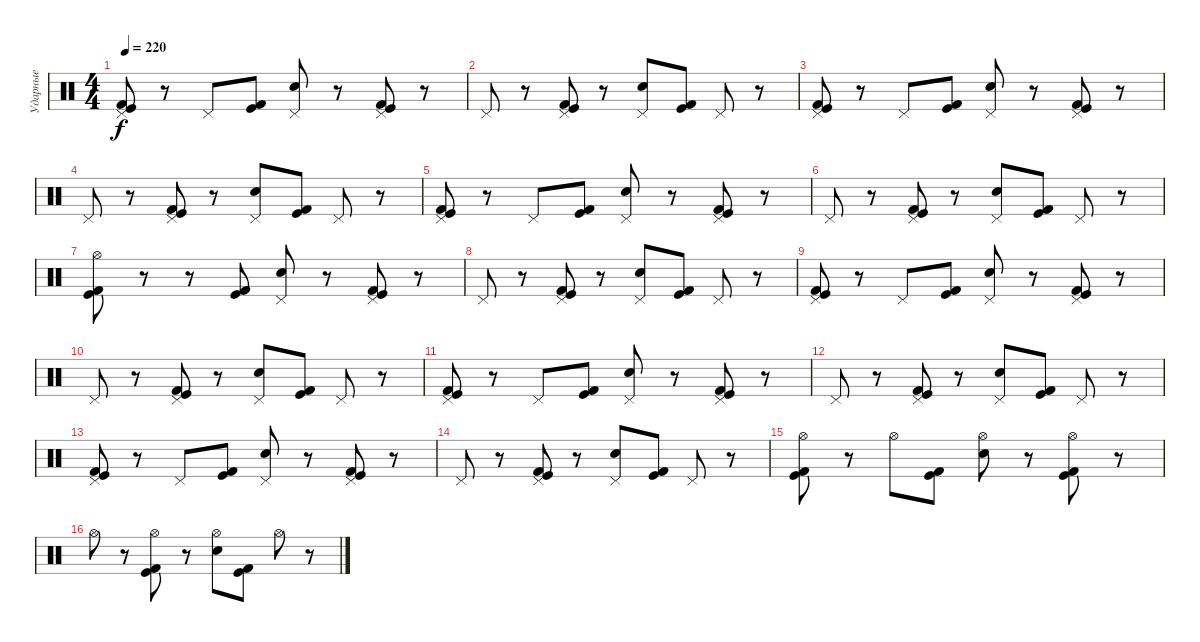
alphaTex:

\track ("Ударные" "Ударные") {instrument percussion}
\staff {score}
\articulation defaults
\ts (4 4)
\tempo 220
\clef neutral
\ks c
("Pedal Hi-Hat (hit)" "Kick (hit)" "Kick (hit) 2").8{dy f} r.8 "Pedal Hi-Hat (hit)".8 ("Kick (hit)" "Kick (hit) 2").8 ("Pedal Hi-Hat (hit)" "Electric Snare (hit)").8 r.8 ("Pedal Hi-Hat (hit)" "Kick (hit)" "Kick (hit) 2").8 r.8 |
"Pedal Hi-Hat (hit)".8 r.8 ("Pedal Hi-Hat (hit)" "Kick (hit)" "Kick (hit) 2").8 r.8 ("Pedal Hi-Hat (hit)" "Electric Snare (hit)").8 ("Kick (hit)" "Kick (hit) 2").8 "Pedal Hi-Hat (hit)".8 r.8 |
("Pedal Hi-Hat (hit)" "Kick (hit)" "Kick (hit) 2").8 r.8 "Pedal Hi-Hat (hit)".8 ("Kick (hit)" "Kick (hit) 2").8 ("Pedal Hi-Hat (hit)" "Electric Snare (hit)").8 r.8 ("Pedal Hi-Hat (hit)" "Kick (hit)" "Kick (hit) 2").8 r.8 |
"Pedal Hi-Hat (hit)".8 r.8 ("Pedal Hi-Hat (hit)" "Kick (hit)" "Kick (hit) 2").8 r.8 ("Pedal Hi-Hat (hit)" "Electric Snare (hit)").8 ("Kick (hit)" "Kick (hit) 2").8 "Pedal Hi-Hat (hit)".8 r.8 |
("Pedal Hi-Hat (hit)" "Kick (hit)" "Kick (hit) 2").8 r.8 "Pedal Hi-Hat (hit)".8 ("Kick (hit)" "Kick (hit) 2").8 ("Pedal Hi-Hat (hit)" "Electric Snare (hit)").8 r.8 ("Pedal Hi-Hat (hit)" "Kick (hit)" "Kick (hit) 2").8 r.8 |
"Pedal Hi-Hat (hit)".8 r.8 ("Pedal Hi-Hat (hit)" "Kick (hit)" "Kick (hit) 2").8 r.8 ("Pedal Hi-Hat (hit)" "Electric Snare (hit)").8 ("Kick (hit)" "Kick (hit) 2").8 "Pedal Hi-Hat (hit)".8 r.8 |
("Hi-Hat (open)" "Kick (hit)" "Kick (hit) 2").8 r.8 r.8 ("Kick (hit)" "Kick (hit) 2").8 ("Pedal Hi-Hat (hit)" "Electric Snare (hit)").8 r.8 ("Pedal Hi-Hat (hit)" "Kick (hit)" "Kick (hit) 2").8 r.8 |
"Pedal Hi-Hat (hit)".8 r.8 ("Pedal Hi-Hat (hit)" "Kick (hit)" "Kick (hit) 2").8 r.8 ("Pedal Hi-Hat (hit)" "Electric Snare (hit)").8 ("Kick (hit)" "Kick (hit) 2").8 "Pedal Hi-Hat (hit)".8 r.8 |
("Pedal Hi-Hat (hit)" "Kick (hit)" "Kick (hit) 2").8 r.8 "Pedal Hi-Hat (hit)".8 ("Kick (hit)" "Kick (hit) 2").8 ("Pedal Hi-Hat (hit)" "Electric Snare (hit)").8 r.8 ("Pedal Hi-Hat (hit)" "Kick (hit)" "Kick (hit) 2").8 r.8 |
"Pedal Hi-Hat (hit)".8 r.8 ("Pedal Hi-Hat (hit)" "Kick (hit)" "Kick (hit) 2").8 r.8 ("Pedal Hi-Hat (hit)" "Electric Snare (hit)").8 ("Kick (hit)" "Kick (hit) 2").8 "Pedal Hi-Hat (hit)".8 r.8 |
("Pedal Hi-Hat (hit)" "Kick (hit)" "Kick (hit) 2").8 r.8 "Pedal Hi-Hat (hit)".8 ("Kick (hit)" "Kick (hit) 2").8 ("Pedal Hi-Hat (hit)" "Electric Snare (hit)").8 r.8 ("Pedal Hi-Hat (hit)" "Kick (hit)" "Kick (hit) 2").8 r.8 |
"Pedal Hi-Hat (hit)".8 r.8 ("Pedal Hi-Hat (hit)" "Kick (hit)" "Kick (hit) 2").8 r.8 ("Pedal Hi-Hat (hit)" "Electric Snare (hit)").8 ("Kick (hit)" "Kick (hit) 2").8 "Pedal Hi-Hat (hit)".8 r.8 |
("Pedal Hi-Hat (hit)" "Kick (hit)" "Kick (hit) 2").8 r.8 "Pedal Hi-Hat (hit)".8 ("Kick (hit)" "Kick (hit) 2").8 ("Pedal Hi-Hat (hit)" "Electric Snare (hit)").8 r.8 ("Pedal Hi-Hat (hit)" "Kick (hit)" "Kick (hit) 2").8 r.8 |
"Pedal Hi-Hat (hit)".8 r.8 ("Pedal Hi-Hat (hit)" "Kick (hit)" "Kick (hit) 2").8 r.8 ("Pedal Hi-Hat (hit)" "Electric Snare (hit)").8 ("Kick (hit)" "Kick (hit) 2").8 "Pedal Hi-Hat (hit)".8 r.8 |
("Hi-Hat (open)" "Kick (hit)" "Kick (hit) 2").8 r.8 "Hi-Hat (open)".8 ("Kick (hit)" "Kick (hit) 2").8 ("Hi-Hat (open)" "Electric Snare (hit)").8 r.8 ("Hi-Hat (open)" "Kick (hit)" "Kick (hit) 2").8 r.8 |
"Hi-Hat (open)".8 r.8 ("Hi-Hat (open)" "Kick (hit)" "Kick (hit) 2").8 r.8 ("Hi-Hat (open)" "Electric Snare (hit)").8 ("Kick (hit)" "Kick (hit) 2").8 "Hi-Hat (open)".8 r.8
